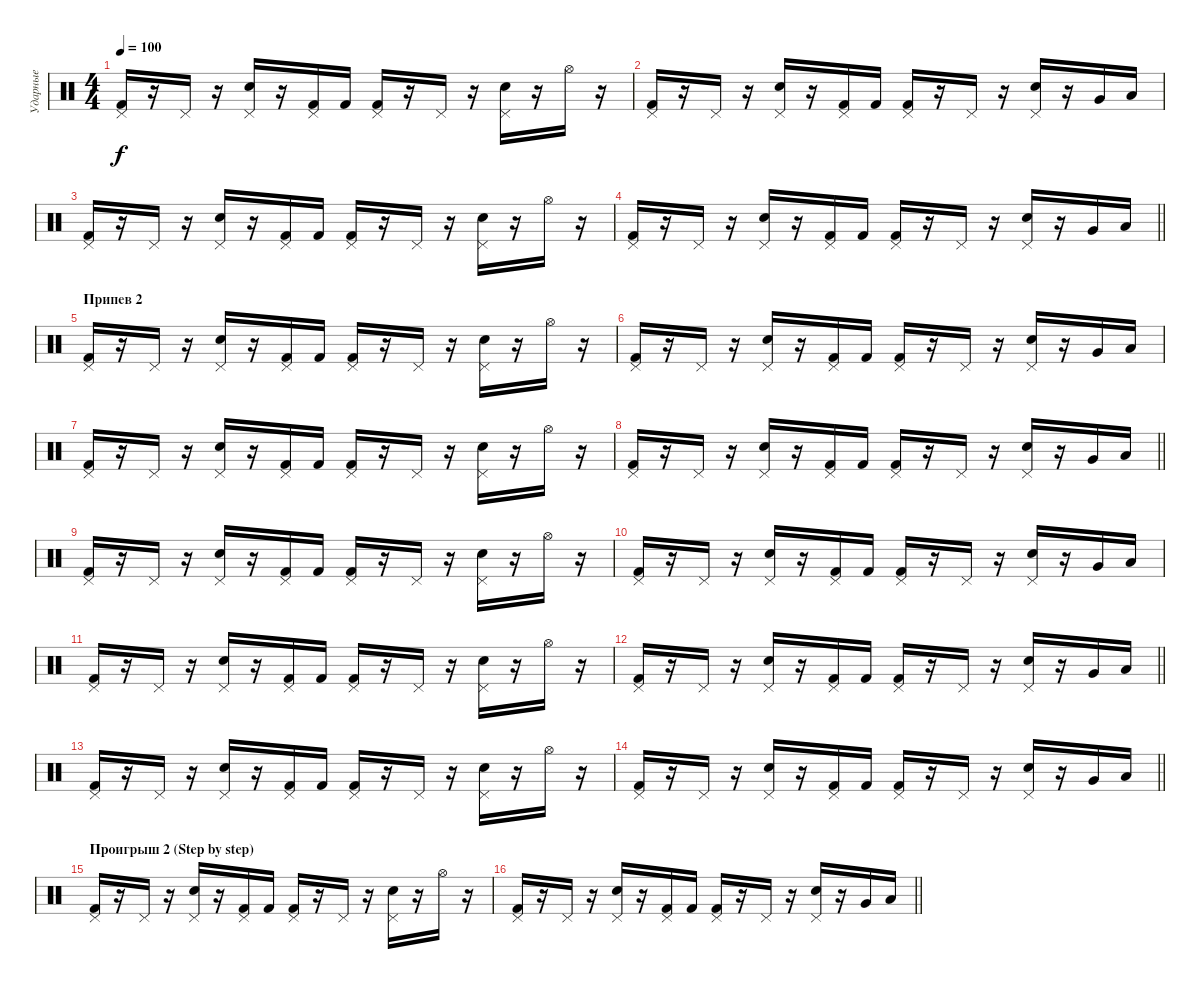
\track ("Ударные" "Ударные") {instrument percussion}
\staff {score}
\articulation defaults
\ts (4 4)
\tempo 100
\clef neutral
\ks c
("Pedal Hi-Hat (hit)" "Kick (hit) 2").16{dy f} r.16 "Pedal Hi-Hat (hit)".16 r.16 ("Pedal Hi-Hat (hit)" "Snare (hit) 2").16 r.16 ("Pedal Hi-Hat (hit)" "Kick (hit) 2").16 "Kick (hit) 2".16 ("Pedal Hi-Hat (hit)" "Kick (hit) 2").16 r.16 "Pedal Hi-Hat (hit)".16 r.16 ("Pedal Hi-Hat (hit)" "Snare (hit) 2").16 r.16 "Hi-Hat (open)".16 r.16 |
("Pedal Hi-Hat (hit)" "Kick (hit) 2").16 r.16 "Pedal Hi-Hat (hit)".16 r.16 ("Pedal Hi-Hat (hit)" "Snare (hit) 2").16 r.16 ("Pedal Hi-Hat (hit)" "Kick (hit) 2").16 "Kick (hit) 2".16 ("Pedal Hi-Hat (hit)" "Kick (hit) 2").16 r.16 "Pedal Hi-Hat (hit)".16 r.16 ("Pedal Hi-Hat (hit)" "Snare (hit) 2").16 r.16 "Very Low Tom (hit)".16 "Low Floor Tom (hit)".16 |
("Pedal Hi-Hat (hit)" "Kick (hit) 2").16 r.16 "Pedal Hi-Hat (hit)".16 r.16 ("Pedal Hi-Hat (hit)" "Snare (hit) 2").16 r.16 ("Pedal Hi-Hat (hit)" "Kick (hit) 2").16 "Kick (hit) 2".16 ("Pedal Hi-Hat (hit)" "Kick (hit) 2").16 r.16 "Pedal Hi-Hat (hit)".16 r.16 ("Pedal Hi-Hat (hit)" "Snare (hit) 2").16 r.16 "Hi-Hat (open)".16 r.16 |
\barLineRight lightlight
("Pedal Hi-Hat (hit)" "Kick (hit) 2").16 r.16 "Pedal Hi-Hat (hit)".16 r.16 ("Pedal Hi-Hat (hit)" "Snare (hit) 2").16 r.16 ("Pedal Hi-Hat (hit)" "Kick (hit) 2").16 "Kick (hit) 2".16 ("Pedal Hi-Hat (hit)" "Kick (hit) 2").16 r.16 "Pedal Hi-Hat (hit)".16 r.16 ("Pedal Hi-Hat (hit)" "Snare (hit) 2").16 r.16 "Very Low Tom (hit)".16 "Low Floor Tom (hit)".16 |
\section ("" "Припев 2")
("Pedal Hi-Hat (hit)" "Kick (hit) 2").16 r.16 "Pedal Hi-Hat (hit)".16 r.16 ("Pedal Hi-Hat (hit)" "Snare (hit) 2").16 r.16 ("Pedal Hi-Hat (hit)" "Kick (hit) 2").16 "Kick (hit) 2".16 ("Pedal Hi-Hat (hit)" "Kick (hit) 2").16 r.16 "Pedal Hi-Hat (hit)".16 r.16 ("Pedal Hi-Hat (hit)" "Snare (hit) 2").16 r.16 "Hi-Hat (open)".16 r.16 |
("Pedal Hi-Hat (hit)" "Kick (hit) 2").16 r.16 "Pedal Hi-Hat (hit)".16 r.16 ("Pedal Hi-Hat (hit)" "Snare (hit) 2").16 r.16 ("Pedal Hi-Hat (hit)" "Kick (hit) 2").16 "Kick (hit) 2".16 ("Pedal Hi-Hat (hit)" "Kick (hit) 2").16 r.16 "Pedal Hi-Hat (hit)".16 r.16 ("Pedal Hi-Hat (hit)" "Snare (hit) 2").16 r.16 "Very Low Tom (hit)".16 "Low Floor Tom (hit)".16 |
("Pedal Hi-Hat (hit)" "Kick (hit) 2").16 r.16 "Pedal Hi-Hat (hit)".16 r.16 ("Pedal Hi-Hat (hit)" "Snare (hit) 2").16 r.16 ("Pedal Hi-Hat (hit)" "Kick (hit) 2").16 "Kick (hit) 2".16 ("Pedal Hi-Hat (hit)" "Kick (hit) 2").16 r.16 "Pedal Hi-Hat (hit)".16 r.16 ("Pedal Hi-Hat (hit)" "Snare (hit) 2").16 r.16 "Hi-Hat (open)".16 r.16 |
\barLineRight lightlight
("Pedal Hi-Hat (hit)" "Kick (hit) 2").16 r.16 "Pedal Hi-Hat (hit)".16 r.16 ("Pedal Hi-Hat (hit)" "Snare (hit) 2").16 r.16 ("Pedal Hi-Hat (hit)" "Kick (hit) 2").16 "Kick (hit) 2".16 ("Pedal Hi-Hat (hit)" "Kick (hit) 2").16 r.16 "Pedal Hi-Hat (hit)".16 r.16 ("Pedal Hi-Hat (hit)" "Snare (hit) 2").16 r.16 "Very Low Tom (hit)".16 "Low Floor Tom (hit)".16 |
("Pedal Hi-Hat (hit)" "Kick (hit) 2").16 r.16 "Pedal Hi-Hat (hit)".16 r.16 ("Pedal Hi-Hat (hit)" "Snare (hit) 2").16 r.16 ("Pedal Hi-Hat (hit)" "Kick (hit) 2").16 "Kick (hit) 2".16 ("Pedal Hi-Hat (hit)" "Kick (hit) 2").16 r.16 "Pedal Hi-Hat (hit)".16 r.16 ("Pedal Hi-Hat (hit)" "Snare (hit) 2").16 r.16 "Hi-Hat (open)".16 r.16 |
("Pedal Hi-Hat (hit)" "Kick (hit) 2").16 r.16 "Pedal Hi-Hat (hit)".16 r.16 ("Pedal Hi-Hat (hit)" "Snare (hit) 2").16 r.16 ("Pedal Hi-Hat (hit)" "Kick (hit) 2").16 "Kick (hit) 2".16 ("Pedal Hi-Hat (hit)" "Kick (hit) 2").16 r.16 "Pedal Hi-Hat (hit)".16 r.16 ("Pedal Hi-Hat (hit)" "Snare (hit) 2").16 r.16 "Very Low Tom (hit)".16 "Low Floor Tom (hit)".16 |
("Pedal Hi-Hat (hit)" "Kick (hit) 2").16 r.16 "Pedal Hi-Hat (hit)".16 r.16 ("Pedal Hi-Hat (hit)" "Snare (hit) 2").16 r.16 ("Pedal Hi-Hat (hit)" "Kick (hit) 2").16 "Kick (hit) 2".16 ("Pedal Hi-Hat (hit)" "Kick (hit) 2").16 r.16 "Pedal Hi-Hat (hit)".16 r.16 ("Pedal Hi-Hat (hit)" "Snare (hit) 2").16 r.16 "Hi-Hat (open)".16 r.16 |
\barLineRight lightlight
("Pedal Hi-Hat (hit)" "Kick (hit) 2").16 r.16 "Pedal Hi-Hat (hit)".16 r.16 ("Pedal Hi-Hat (hit)" "Snare (hit) 2").16 r.16 ("Pedal Hi-Hat (hit)" "Kick (hit) 2").16 "Kick (hit) 2".16 ("Pedal Hi-Hat (hit)" "Kick (hit) 2").16 r.16 "Pedal Hi-Hat (hit)".16 r.16 ("Pedal Hi-Hat (hit)" "Snare (hit) 2").16 r.16 "Very Low Tom (hit)".16 "Low Floor Tom (hit)".16 |
("Pedal Hi-Hat (hit)" "Kick (hit) 2").16 r.16 "Pedal Hi-Hat (hit)".16 r.16 ("Pedal Hi-Hat (hit)" "Snare (hit) 2").16 r.16 ("Pedal Hi-Hat (hit)" "Kick (hit) 2").16 "Kick (hit) 2".16 ("Pedal Hi-Hat (hit)" "Kick (hit) 2").16 r.16 "Pedal Hi-Hat (hit)".16 r.16 ("Pedal Hi-Hat (hit)" "Snare (hit) 2").16 r.16 "Hi-Hat (open)".16 r.16 |
\barLineRight lightlight
("Pedal Hi-Hat (hit)" "Kick (hit) 2").16 r.16 "Pedal Hi-Hat (hit)".16 r.16 ("Pedal Hi-Hat (hit)" "Snare (hit) 2").16 r.16 ("Pedal Hi-Hat (hit)" "Kick (hit) 2").16 "Kick (hit) 2".16 ("Pedal Hi-Hat (hit)" "Kick (hit) 2").16 r.16 "Pedal Hi-Hat (hit)".16 r.16 ("Pedal Hi-Hat (hit)" "Snare (hit) 2").16 r.16 "Very Low Tom (hit)".16 "Low Floor Tom (hit)".16 |
\section ("" "Проигрыш 2 (Step by step)")
("Pedal Hi-Hat (hit)" "Kick (hit) 2").16 r.16 "Pedal Hi-Hat (hit)".16 r.16 ("Pedal Hi-Hat (hit)" "Snare (hit) 2").16 r.16 ("Pedal Hi-Hat (hit)" "Kick (hit) 2").16 "Kick (hit) 2".16 ("Pedal Hi-Hat (hit)" "Kick (hit) 2").16 r.16 "Pedal Hi-Hat (hit)".16 r.16 ("Pedal Hi-Hat (hit)" "Snare (hit) 2").16 r.16 "Hi-Hat (open)".16 r.16 |
\barLineRight lightlight
("Pedal Hi-Hat (hit)" "Kick (hit) 2").16 r.16 "Pedal Hi-Hat (hit)".16 r.16 ("Pedal Hi-Hat (hit)" "Snare (hit) 2").16 r.16 ("Pedal Hi-Hat (hit)" "Kick (hit) 2").16 "Kick (hit) 2".16 ("Pedal Hi-Hat (hit)" "Kick (hit) 2").16 r.16 "Pedal Hi-Hat (hit)".16 r.16 ("Pedal Hi-Hat (hit)" "Snare (hit) 2").16 r.16 "Very Low Tom (hit)".16 "Low Floor Tom (hit)".16
